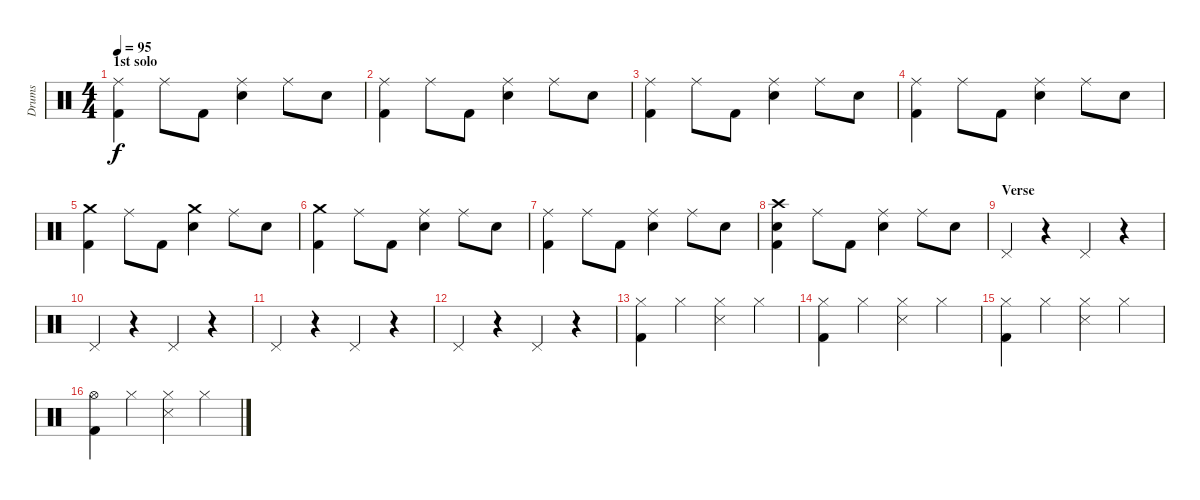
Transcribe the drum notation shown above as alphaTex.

\track ("Drums" "Drums") {instrument percussion}
\staff {score}
\articulation defaults
\ts (4 4)
\section ("" "1st solo")
\tempo 95
\clef neutral
\ks c
("Ride (middle)" "Kick (hit) 2").4{dy f} "Ride (middle)".8 "Kick (hit) 2".8 ("Ride (middle)" "Electric Snare (hit)").4 "Ride (middle)".8 "Electric Snare (hit)".8 |
("Ride (middle)" "Kick (hit) 2").4 "Ride (middle)".8 "Kick (hit) 2".8 ("Ride (middle)" "Electric Snare (hit)").4 "Ride (middle)".8 "Electric Snare (hit)".8 |
("Ride (middle)" "Kick (hit) 2").4 "Ride (middle)".8 "Kick (hit) 2".8 ("Ride (middle)" "Electric Snare (hit)").4 "Ride (middle)".8 "Electric Snare (hit)".8 |
("Ride (middle)" "Kick (hit) 2").4 "Ride (middle)".8 "Kick (hit) 2".8 ("Ride (middle)" "Electric Snare (hit)").4 "Ride (middle)".8 "Electric Snare (hit)".8 |
("Crash medium (hit)" "Kick (hit) 2").4 "Ride (middle)".8 "Kick (hit) 2".8 ("Crash medium (hit)" "Electric Snare (hit)").4 "Ride (middle)".8 "Electric Snare (hit)".8 |
("Crash medium (hit)" "Kick (hit) 2").4 "Ride (middle)".8 "Kick (hit) 2".8 ("Ride (middle)" "Electric Snare (hit)").4 "Ride (middle)".8 "Electric Snare (hit)".8 |
("Ride (middle)" "Kick (hit) 2").4 "Ride (middle)".8 "Kick (hit) 2".8 ("Ride (middle)" "Electric Snare (hit)").4 "Ride (middle)".8 "Electric Snare (hit)".8 |
("Crash high (hit)" "Electric Snare (hit)" "Kick (hit) 2").4 "Ride (middle)".8 "Kick (hit) 2".8 ("Ride (middle)" "Electric Snare (hit)").4 "Ride (middle)".8 "Electric Snare (hit)".8 |
\section ("" "Verse")
"Pedal Hi-Hat (hit)".4 r.4 "Pedal Hi-Hat (hit)".4 r.4 |
"Pedal Hi-Hat (hit)".4 r.4 "Pedal Hi-Hat (hit)".4 r.4 |
"Pedal Hi-Hat (hit)".4 r.4 "Pedal Hi-Hat (hit)".4 r.4 |
"Pedal Hi-Hat (hit)".4 r.4 "Pedal Hi-Hat (hit)".4 r.4 |
("Hi-Hat (closed)" "Kick (hit) 2").4 "Hi-Hat (closed)".4 ("Hi-Hat (closed)" "Snare (side stick) 3").4 "Hi-Hat (closed)".4 |
("Hi-Hat (closed)" "Kick (hit) 2").4 "Hi-Hat (closed)".4 ("Hi-Hat (closed)" "Snare (side stick) 3").4 "Hi-Hat (closed)".4 |
("Hi-Hat (closed)" "Kick (hit) 2").4 "Hi-Hat (closed)".4 ("Hi-Hat (closed)" "Snare (side stick) 3").4 "Hi-Hat (closed)".4 |
("Hi-Hat (open)" "Kick (hit) 2").4 "Hi-Hat (closed)".4 ("Hi-Hat (closed)" "Snare (side stick) 3").4 "Hi-Hat (closed)".4
